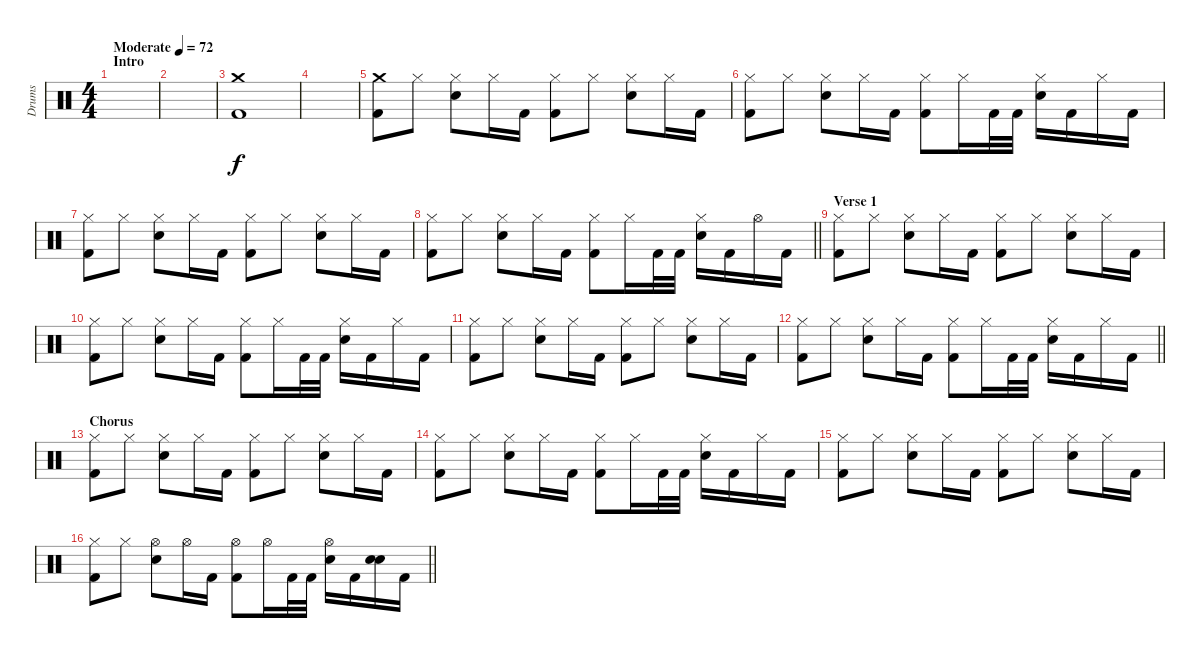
\track ("Drums" "Drums") {instrument percussion}
\staff {score}
\articulation defaults
\ts (4 4)
\section ("" "Intro")
\tempo (72 "Moderate")
\clef neutral
\ks c
|
|
("Crash medium (hit)" "Kick (hit) 2").1 |
|
("Crash medium (hit)" "Kick (hit) 2").8 "Hi-Hat (closed)".8 ("Hi-Hat (closed)" "Electric Snare (hit)").8 "Hi-Hat (closed)".16 "Kick (hit) 2".16 ("Hi-Hat (closed)" "Kick (hit) 2").8 "Hi-Hat (closed)".8 ("Hi-Hat (closed)" "Electric Snare (hit)").8 "Hi-Hat (closed)".16 "Kick (hit) 2".16 |
("Hi-Hat (closed)" "Kick (hit) 2").8 "Hi-Hat (closed)".8 ("Hi-Hat (closed)" "Electric Snare (hit)").8 "Hi-Hat (closed)".16 "Kick (hit) 2".16 ("Hi-Hat (closed)" "Kick (hit) 2").8 "Hi-Hat (closed)".16 "Kick (hit) 2".32 "Kick (hit) 2".32 ("Hi-Hat (closed)" "Electric Snare (hit)").16 "Kick (hit) 2".16 "Hi-Hat (closed)".16 "Kick (hit) 2".16 |
("Hi-Hat (closed)" "Kick (hit) 2").8 "Hi-Hat (closed)".8 ("Hi-Hat (closed)" "Electric Snare (hit)").8 "Hi-Hat (closed)".16 "Kick (hit) 2".16 ("Hi-Hat (closed)" "Kick (hit) 2").8 "Hi-Hat (closed)".8 ("Hi-Hat (closed)" "Electric Snare (hit)").8 "Hi-Hat (closed)".16 "Kick (hit) 2".16 |
\barLineRight lightlight
("Hi-Hat (closed)" "Kick (hit) 2").8 "Hi-Hat (closed)".8 ("Hi-Hat (closed)" "Electric Snare (hit)").8 "Hi-Hat (closed)".16 "Kick (hit) 2".16 ("Hi-Hat (closed)" "Kick (hit) 2").8 "Hi-Hat (closed)".16 "Kick (hit) 2".32 "Kick (hit) 2".32 ("Hi-Hat (closed)" "Electric Snare (hit)").16 "Kick (hit) 2".16 "Hi-Hat (open)".16 "Kick (hit) 2".16 |
\section ("" "Verse 1")
("Hi-Hat (closed)" "Kick (hit) 2").8 "Hi-Hat (closed)".8 ("Hi-Hat (closed)" "Electric Snare (hit)").8 "Hi-Hat (closed)".16 "Kick (hit) 2".16 ("Hi-Hat (closed)" "Kick (hit) 2").8 "Hi-Hat (closed)".8 ("Hi-Hat (closed)" "Electric Snare (hit)").8 "Hi-Hat (closed)".16 "Kick (hit) 2".16 |
("Hi-Hat (closed)" "Kick (hit) 2").8 "Hi-Hat (closed)".8 ("Hi-Hat (closed)" "Electric Snare (hit)").8 "Hi-Hat (closed)".16 "Kick (hit) 2".16 ("Hi-Hat (closed)" "Kick (hit) 2").8 "Hi-Hat (closed)".16 "Kick (hit) 2".32 "Kick (hit) 2".32 ("Hi-Hat (closed)" "Electric Snare (hit)").16 "Kick (hit) 2".16 "Hi-Hat (closed)".16 "Kick (hit) 2".16 |
("Hi-Hat (closed)" "Kick (hit) 2").8 "Hi-Hat (closed)".8 ("Hi-Hat (closed)" "Electric Snare (hit)").8 "Hi-Hat (closed)".16 "Kick (hit) 2".16 ("Hi-Hat (closed)" "Kick (hit) 2").8 "Hi-Hat (closed)".8 ("Hi-Hat (closed)" "Electric Snare (hit)").8 "Hi-Hat (closed)".16 "Kick (hit) 2".16 |
\barLineRight lightlight
("Hi-Hat (closed)" "Kick (hit) 2").8 "Hi-Hat (closed)".8 ("Hi-Hat (closed)" "Electric Snare (hit)").8 "Hi-Hat (closed)".16 "Kick (hit) 2".16 ("Hi-Hat (closed)" "Kick (hit) 2").8 "Hi-Hat (closed)".16 "Kick (hit) 2".32 "Kick (hit) 2".32 ("Hi-Hat (closed)" "Electric Snare (hit)").16 "Kick (hit) 2".16 "Hi-Hat (closed)".16 "Kick (hit) 2".16 |
\section ("" "Chorus")
("Hi-Hat (closed)" "Kick (hit) 2").8 "Hi-Hat (closed)".8 ("Hi-Hat (closed)" "Electric Snare (hit)").8 "Hi-Hat (closed)".16 "Kick (hit) 2".16 ("Hi-Hat (closed)" "Kick (hit) 2").8 "Hi-Hat (closed)".8 ("Hi-Hat (closed)" "Electric Snare (hit)").8 "Hi-Hat (closed)".16 "Kick (hit) 2".16 |
("Hi-Hat (closed)" "Kick (hit) 2").8 "Hi-Hat (closed)".8 ("Hi-Hat (closed)" "Electric Snare (hit)").8 "Hi-Hat (closed)".16 "Kick (hit) 2".16 ("Hi-Hat (closed)" "Kick (hit) 2").8 "Hi-Hat (closed)".16 "Kick (hit) 2".32 "Kick (hit) 2".32 ("Hi-Hat (closed)" "Electric Snare (hit)").16 "Kick (hit) 2".16 "Hi-Hat (closed)".16 "Kick (hit) 2".16 |
("Hi-Hat (closed)" "Kick (hit) 2").8 "Hi-Hat (closed)".8 ("Hi-Hat (closed)" "Electric Snare (hit)").8 "Hi-Hat (closed)".16 "Kick (hit) 2".16 ("Hi-Hat (closed)" "Kick (hit) 2").8 "Hi-Hat (closed)".8 ("Hi-Hat (closed)" "Electric Snare (hit)").8 "Hi-Hat (closed)".16 "Kick (hit) 2".16 |
\barLineRight lightlight
("Hi-Hat (closed)" "Kick (hit) 2").8 "Hi-Hat (closed)".8 ("Hi-Hat (open)" "Electric Snare (hit)").8 "Hi-Hat (open)".16 "Kick (hit) 2".16 ("Hi-Hat (open)" "Kick (hit) 2").8 "Hi-Hat (open)".16 "Kick (hit) 2".32 "Kick (hit) 2".32 ("Hi-Hat (open)" "Electric Snare (hit)").16 "Kick (hit) 2".16 ("Electric Snare (hit)" "Electric Snare (hit)").16 "Kick (hit) 2".16
